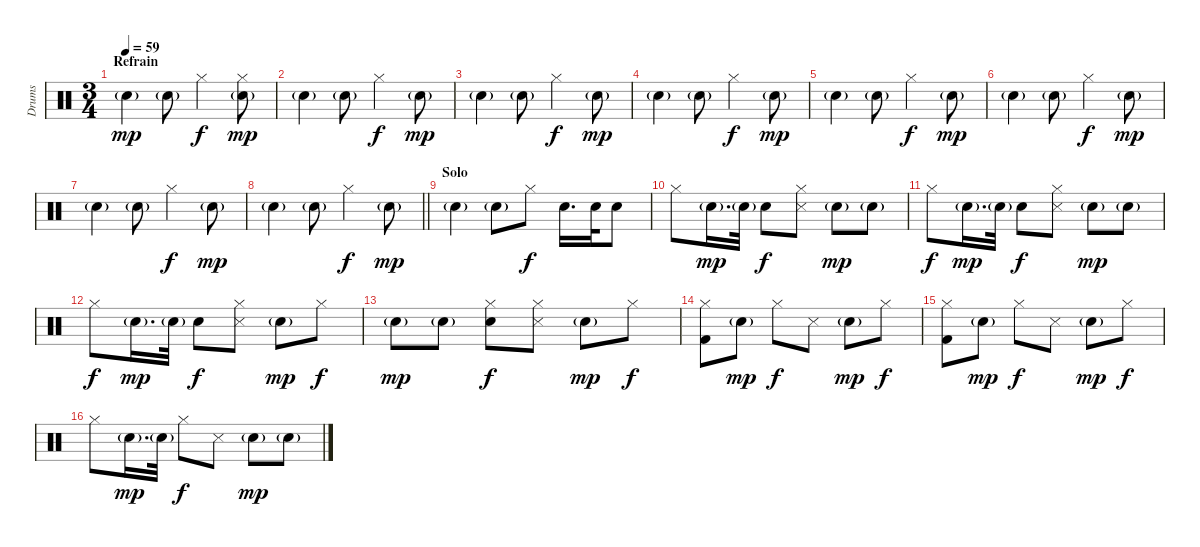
\track ("Drums" "Drums") {instrument percussion}
\staff {score}
\articulation defaults
\ts (3 4)
\section ("" "Refrain")
\tempo 59
\clef neutral
\ks c "Snare (hit) 2"{g}.4{dy mp} "Snare (hit) 2"{g}.8 "Hi-Hat (closed)".4{dy f}
("Hi-Hat (closed)" "Snare (hit) 2"{g}).8{dy mp} |
"Snare (hit) 2"{g}.4 "Snare (hit) 2"{g}.8 "Hi-Hat (closed)".4{dy f} "Snare (hit) 2"{g}.8{dy mp} |
"Snare (hit) 2"{g}.4 "Snare (hit) 2"{g}.8 "Hi-Hat (closed)".4{dy f} "Snare (hit) 2"{g}.8{dy mp} |
"Snare (hit) 2"{g}.4 "Snare (hit) 2"{g}.8 "Hi-Hat (closed)".4{dy f} "Snare (hit) 2"{g}.8{dy mp} |
"Snare (hit) 2"{g}.4 "Snare (hit) 2"{g}.8 "Hi-Hat (closed)".4{dy f} "Snare (hit) 2"{g}.8{dy mp} |
"Snare (hit) 2"{g}.4 "Snare (hit) 2"{g}.8 "Hi-Hat (closed)".4{dy f} "Snare (hit) 2"{g}.8{dy mp} |
"Snare (hit) 2"{g}.4 "Snare (hit) 2"{g}.8 "Hi-Hat (closed)".4{dy f} "Snare (hit) 2"{g}.8{dy mp} |
\barLineRight lightlight "Snare (hit) 2"{g}.4 "Snare (hit) 2"{g}.8 "Hi-Hat (closed)".4{dy f} "Snare (hit) 2"{g}.8{dy mp}
|
\section ("" "Solo ")
"Snare (hit) 2"{g}.4 "Snare (hit) 2"{g}.8 "Hi-Hat (closed)".8{dy f} "Snare (hit) 2".16{d} "Snare (hit) 2".32 "Snare (hit) 2".8 |
"Hi-Hat (closed)".8 "Snare (hit) 2"{g}.16{d dy mp} "Snare (hit) 2"{g}.32 "Snare (hit) 2".8{dy f} ("Hi-Hat (closed)" "Snare (side stick) 3").8 "Snare (hit) 2"{g}.8{dy mp} "Snare (hit) 2"{g}.8 |
"Hi-Hat (closed)".8{dy f} "Snare (hit) 2"{g}.16{d dy mp} "Snare (hit) 2"{g}.32 "Snare (hit) 2".8{dy f} ("Hi-Hat (closed)" "Snare (side stick) 3").8 "Snare (hit) 2"{g}.8{dy mp} "Snare (hit) 2"{g}.8 |
"Hi-Hat (closed)".8{dy f} "Snare (hit) 2"{g}.16{d dy mp} "Snare (hit) 2"{g}.32 "Snare (hit) 2".8{dy f} ("Hi-Hat (closed)" "Snare (side stick) 3").8 "Snare (hit) 2"{g}.8{dy mp} "Hi-Hat (closed)".8{dy f} |
"Snare (hit) 2"{g}.8{dy mp} "Snare (hit) 2"{g}.8 ("Hi-Hat (closed)" "Snare (hit) 2").8{dy f} ("Hi-Hat (closed)" "Snare (side stick) 3").8 "Snare (hit) 2"{g}.8{dy mp} "Hi-Hat (closed)".8{dy f} |
("Hi-Hat (closed)" "Kick (hit) 2").8 "Snare (hit) 2"{g}.8{dy mp} "Hi-Hat (closed)".8{dy f} "Snare (side stick) 3".8 "Snare (hit) 2"{g}.8{dy mp} "Hi-Hat (closed)".8{dy f} |
("Hi-Hat (closed)" "Kick (hit) 2").8 "Snare (hit) 2"{g}.8{dy mp} "Hi-Hat (closed)".8{dy f} "Snare (side stick) 3".8 "Snare (hit) 2"{g}.8{dy mp} "Hi-Hat (closed)".8{dy f} |
"Hi-Hat (closed)".8 "Snare (hit) 2"{g}.16{d dy mp} "Snare (hit) 2"{g}.32 "Hi-Hat (closed)".8{dy f} "Snare (side stick) 3".8 "Snare (hit) 2"{g}.8{dy mp} "Snare (hit) 2"{g}.8
